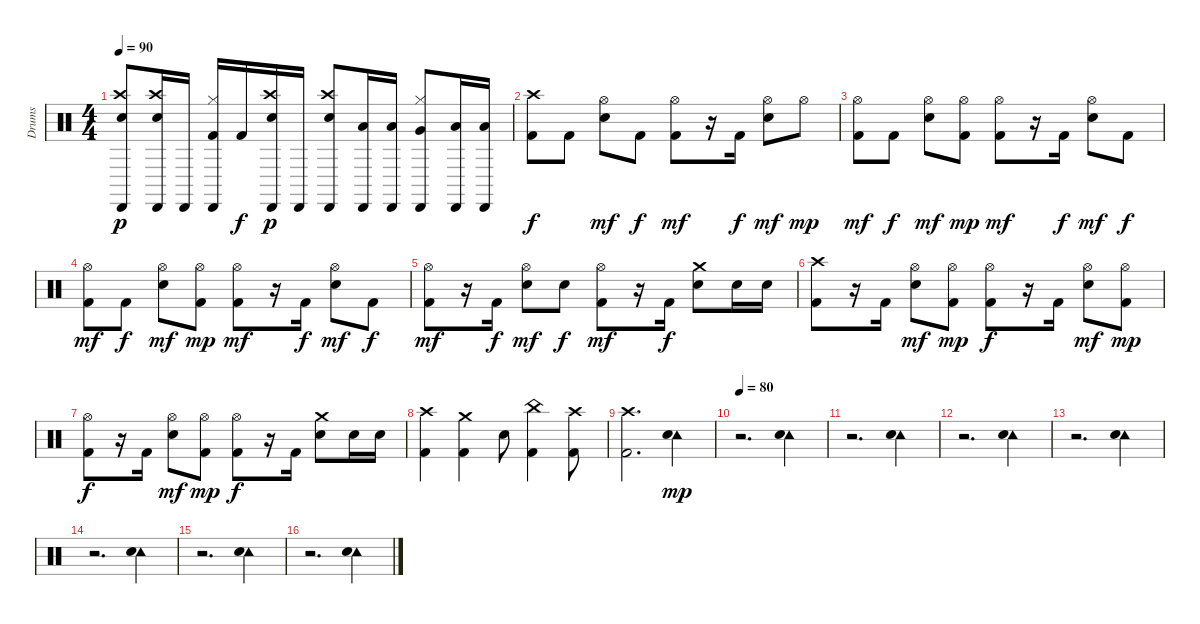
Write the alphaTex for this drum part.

\track ("Drums" "Drums") {instrument percussion}
\staff {score}
\articulation defaults
\ts (4 4)
\tempo 90
\clef neutral
\ks c
("Crash high (hit)" "Cabasa (hit)" "Electric Snare (hit)").8{dy p} ("Crash high (hit)" "Cabasa (hit)" "Electric Snare (hit)").16 "Cabasa (hit)".16 ("Hi-Hat (closed)" "Cabasa (hit)" "Kick (hit) 2").16 "Kick (hit) 2".16{dy f} ("Crash high (hit)" "Cabasa (hit)" "Electric Snare (hit)").16{dy p} "Cabasa (hit)".16 ("Crash high (hit)" "Cabasa (hit)" "Electric Snare (hit)").8 ("Cabasa (hit)" "Low Tom (hit)").16 ("Cabasa (hit)" "Low Tom (hit)").16 ("Hi-Hat (closed)" "Cabasa (hit)" "Very Low Tom (hit)").8 ("Cabasa (hit)" "Low Floor Tom (hit)").16 ("Cabasa (hit)" "Low Floor Tom (hit)").16 |
("Crash high (hit)" "Kick (hit) 2").8{dy f} "Kick (hit) 2".8 ("Hi-Hat (open)" "Snare (hit) 2").8{dy mf} "Kick (hit) 2".8{dy f} ("Hi-Hat (open)" "Kick (hit) 2").8{dy mf} r.16 "Kick (hit) 2".16{dy f} ("Hi-Hat (open)" "Snare (hit) 2").8{dy mf} "Hi-Hat (open)".8{dy mp} |
("Hi-Hat (open)" "Kick (hit) 2").8{dy mf} "Kick (hit) 2".8{dy f} ("Hi-Hat (open)" "Snare (hit) 2").8{dy mf} ("Hi-Hat (open)" "Kick (hit) 2").8{dy mp} ("Hi-Hat (open)" "Kick (hit) 2").8{dy mf} r.16 "Kick (hit) 2".16{dy f} ("Hi-Hat (open)" "Snare (hit) 2").8{dy mf} "Kick (hit) 2".8{dy f} |
("Hi-Hat (open)" "Kick (hit) 2").8{dy mf} "Kick (hit) 2".8{dy f} ("Hi-Hat (open)" "Snare (hit) 2").8{dy mf} ("Hi-Hat (open)" "Kick (hit) 2").8{dy mp} ("Hi-Hat (open)" "Kick (hit) 2").8{dy mf} r.16 "Kick (hit) 2".16{dy f} ("Hi-Hat (open)" "Snare (hit) 2").8{dy mf} "Kick (hit) 2".8{dy f} |
("Hi-Hat (open)" "Kick (hit) 2").8{dy mf} r.16 "Kick (hit) 2".16{dy f} ("Hi-Hat (open)" "Snare (hit) 2").8{dy mf} "Snare (hit) 2".8{dy f} ("Hi-Hat (open)" "Kick (hit) 2").8{dy mf} r.16 "Kick (hit) 2".16{dy f} ("Crash medium (hit)" "Snare (hit) 2").8 "Snare (hit) 2".16 "Snare (hit) 2".16 |
("Crash high (hit)" "Kick (hit) 2").8 r.16 "Kick (hit) 2".16 ("Hi-Hat (open)" "Snare (hit) 2").8{dy mf} ("Hi-Hat (open)" "Kick (hit) 2").8{dy mp} ("Hi-Hat (open)" "Kick (hit) 2").8{dy f} r.16 "Kick (hit) 2".16 ("Hi-Hat (open)" "Snare (hit) 2").8{dy mf} ("Hi-Hat (open)" "Kick (hit) 2").8{dy mp} |
("Hi-Hat (open)" "Kick (hit) 2").8{dy f} r.16 "Kick (hit) 2".16 ("Hi-Hat (open)" "Snare (hit) 2").8{dy mf} ("Hi-Hat (open)" "Kick (hit) 2").8{dy mp} ("Hi-Hat (open)" "Kick (hit) 2").8{dy f} r.16 "Kick (hit) 2".16 ("Crash medium (hit)" "Snare (hit) 2").8 "Snare (hit) 2".16 "Snare (hit) 2".16 |
("Crash high (hit)" "Kick (hit) 2").4 ("Crash medium (hit)" "Kick (hit) 2").4 "Snare (hit) 2".8 ("China (hit)" "Kick (hit) 2").4 ("Crash high (hit)" "Kick (hit) 2").8 |
("Crash high (hit)" "Kick (hit) 2").2{d} ("Tambourine (hit)" "Electric Snare (hit)").4{dy mp} |
\tempo 80
r.2{d} ("Tambourine (hit)" "Electric Snare (hit)").4 |
r.2{d} ("Tambourine (hit)" "Electric Snare (hit)").4 |
r.2{d} ("Tambourine (hit)" "Electric Snare (hit)").4 |
r.2{d} ("Tambourine (hit)" "Electric Snare (hit)").4 |
r.2{d} ("Tambourine (hit)" "Electric Snare (hit)").4 |
r.2{d} ("Tambourine (hit)" "Electric Snare (hit)").4 |
r.2{d} ("Tambourine (hit)" "Electric Snare (hit)").4
